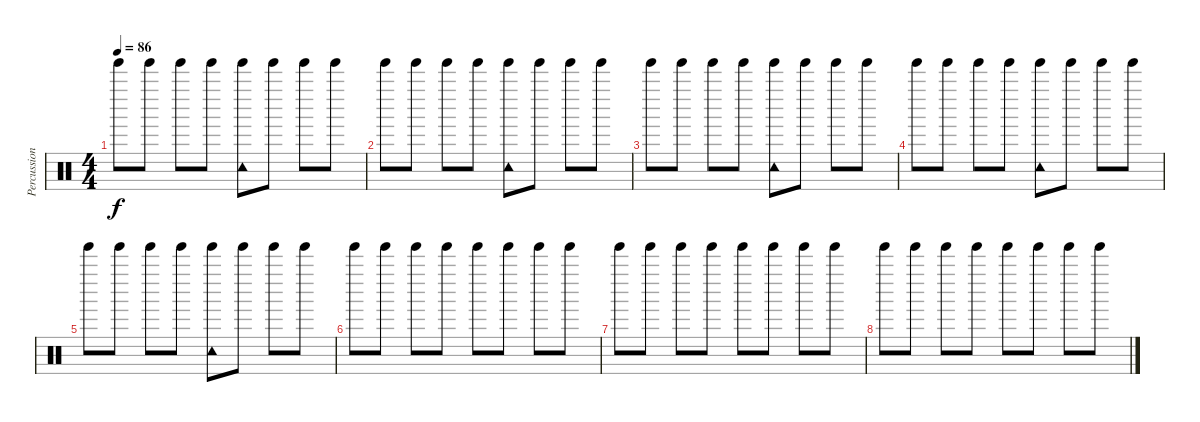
\track ("Percussion" "Percussion") {instrument percussion}
\staff {score}
\articulation defaults
\ts (4 4)
\tempo 86
\clef neutral
\ks c "Tinkle Bell (hit)".8{dy f} "Tinkle Bell (hit)".8 "Tinkle Bell (hit)".8 "Tinkle Bell (hit)".8
("Tinkle Bell (hit)" "Tambourine (hit)").8 "Tinkle Bell (hit)".8 "Tinkle Bell (hit)".8 "Tinkle Bell (hit)".8 |
"Tinkle Bell (hit)".8 "Tinkle Bell (hit)".8 "Tinkle Bell (hit)".8 "Tinkle Bell (hit)".8 ("Tinkle Bell (hit)" "Tambourine (hit)").8 "Tinkle Bell (hit)".8 "Tinkle Bell (hit)".8 "Tinkle Bell (hit)".8 |
"Tinkle Bell (hit)".8 "Tinkle Bell (hit)".8 "Tinkle Bell (hit)".8 "Tinkle Bell (hit)".8 ("Tinkle Bell (hit)" "Tambourine (hit)").8 "Tinkle Bell (hit)".8 "Tinkle Bell (hit)".8 "Tinkle Bell (hit)".8 |
"Tinkle Bell (hit)".8 "Tinkle Bell (hit)".8 "Tinkle Bell (hit)".8 "Tinkle Bell (hit)".8 ("Tinkle Bell (hit)" "Tambourine (hit)").8 "Tinkle Bell (hit)".8 "Tinkle Bell (hit)".8 "Tinkle Bell (hit)".8 |
"Tinkle Bell (hit)".8 "Tinkle Bell (hit)".8 "Tinkle Bell (hit)".8 "Tinkle Bell (hit)".8 ("Tinkle Bell (hit)" "Tambourine (hit)").8 "Tinkle Bell (hit)".8 "Tinkle Bell (hit)".8 "Tinkle Bell (hit)".8 |
"Tinkle Bell (hit)".8 "Tinkle Bell (hit)".8 "Tinkle Bell (hit)".8 "Tinkle Bell (hit)".8 "Tinkle Bell (hit)".8 "Tinkle Bell (hit)".8 "Tinkle Bell (hit)".8 "Tinkle Bell (hit)".8 |
"Tinkle Bell (hit)".8 "Tinkle Bell (hit)".8 "Tinkle Bell (hit)".8 "Tinkle Bell (hit)".8 "Tinkle Bell (hit)".8 "Tinkle Bell (hit)".8 "Tinkle Bell (hit)".8 "Tinkle Bell (hit)".8 |
"Tinkle Bell (hit)".8 "Tinkle Bell (hit)".8 "Tinkle Bell (hit)".8 "Tinkle Bell (hit)".8 "Tinkle Bell (hit)".8 "Tinkle Bell (hit)".8 "Tinkle Bell (hit)".8 "Tinkle Bell (hit)".8
